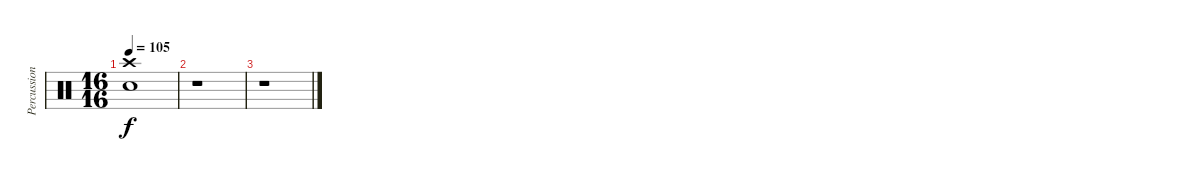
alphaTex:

\track ("Percussion" "Percussion") {instrument percussion}
\staff {score}
\articulation defaults
\ts (16 16)
\tempo 105
\clef neutral
\ks c
("Snare (hit) 2" "Crash high (hit)").1{dy f} |
r.1 |
r.1
